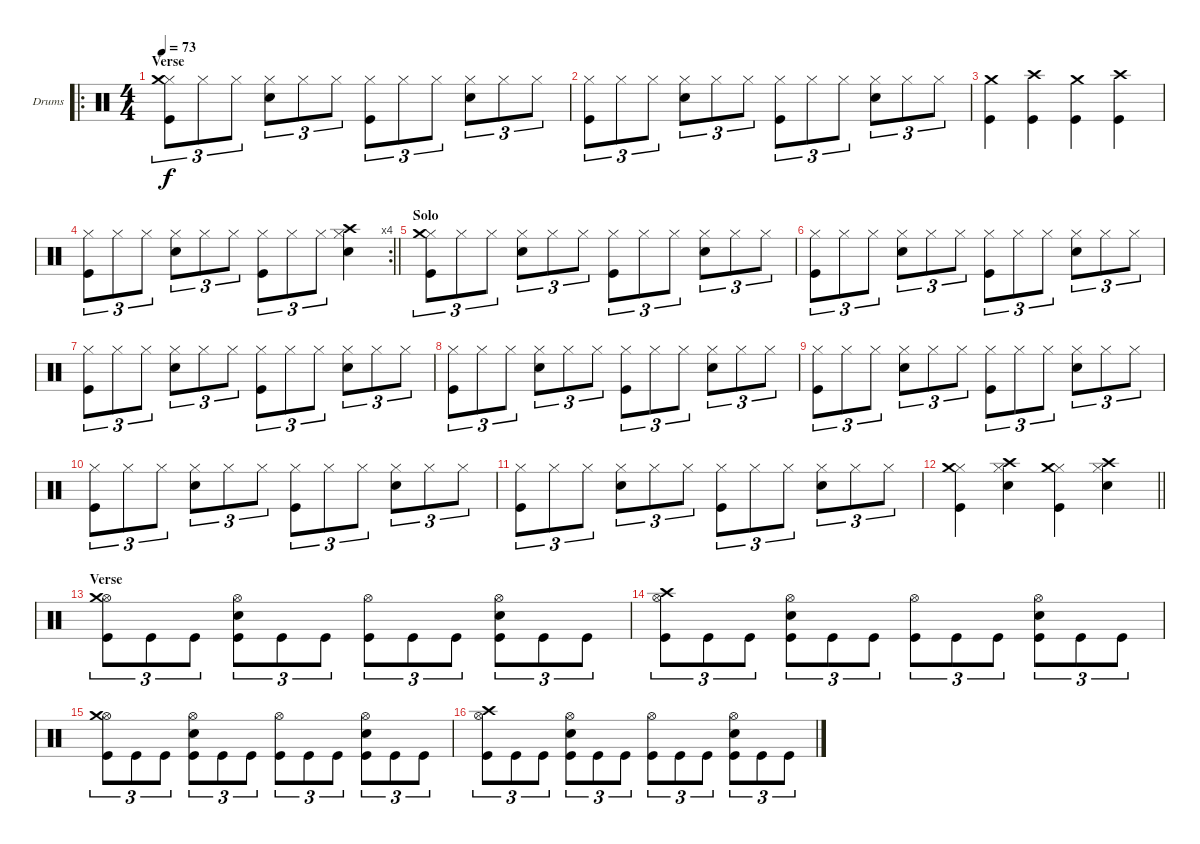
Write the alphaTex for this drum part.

\bracketExtendMode groupsimilarinstruments
\firstSystemTrackNameOrientation horizontal
\otherSystemsTrackNameOrientation horizontal
\track ("Drumkit" "Drums") {instrument percussion}
\staff {score}
\articulation defaults
\ro
\ts (4 4)
\section ("" "Verse")
\tempo 73
\clef neutral
\ks c
("Kick (hit)" "Hi-Hat (closed)" "Crash medium (hit)").8{tu (3 2) dy f} "Hi-Hat (closed)".8{tu (3 2)} "Hi-Hat (closed)".8{tu (3 2)} ("Snare (hit) 2" "Hi-Hat (closed)").8{tu (3 2)} "Hi-Hat (closed)".8{tu (3 2)} "Hi-Hat (closed)".8{tu (3 2)} ("Kick (hit)" "Hi-Hat (closed)").8{tu (3 2)} "Hi-Hat (closed)".8{tu (3 2)} "Hi-Hat (closed)".8{tu (3 2)} ("Snare (hit) 2" "Hi-Hat (closed)").8{tu (3 2)} "Hi-Hat (closed)".8{tu (3 2)} "Hi-Hat (closed)".8{tu (3 2)} |
("Kick (hit)" "Hi-Hat (closed)").8{tu (3 2)} "Hi-Hat (closed)".8{tu (3 2)} "Hi-Hat (closed)".8{tu (3 2)} ("Snare (hit) 2" "Hi-Hat (closed)").8{tu (3 2)} "Hi-Hat (closed)".8{tu (3 2)} "Hi-Hat (closed)".8{tu (3 2)} ("Kick (hit)" "Hi-Hat (closed)").8{tu (3 2)} "Hi-Hat (closed)".8{tu (3 2)} "Hi-Hat (closed)".8{tu (3 2)} ("Snare (hit) 2" "Hi-Hat (closed)").8{tu (3 2)} "Hi-Hat (closed)".8{tu (3 2)} "Hi-Hat (closed)".8{tu (3 2)} |
("Kick (hit)" "Crash medium (hit)").4 ("Kick (hit)" "Crash high (hit)").4 ("Kick (hit)" "Crash medium (hit)").4 ("Kick (hit)" "Crash high (hit)").4 |
\rc 4
\barLineRight lightlight
("Kick (hit)" "Hi-Hat (closed)").8{tu (3 2)} "Hi-Hat (closed)".8{tu (3 2)} "Hi-Hat (closed)".8{tu (3 2)} ("Snare (hit) 2" "Hi-Hat (closed)").8{tu (3 2)} "Hi-Hat (closed)".8{tu (3 2)} "Hi-Hat (closed)".8{tu (3 2)} ("Kick (hit)" "Hi-Hat (closed)").8{tu (3 2)} "Hi-Hat (closed)".8{tu (3 2)} "Hi-Hat (closed)".8{tu (3 2)} ("Snare (hit) 2" "Hi-Hat (closed)" "Crash high (hit)").4 |
\section ("" "Solo")
("Kick (hit)" "Hi-Hat (closed)" "Crash medium (hit)").8{tu (3 2)} "Hi-Hat (closed)".8{tu (3 2)} "Hi-Hat (closed)".8{tu (3 2)} ("Snare (hit) 2" "Hi-Hat (closed)").8{tu (3 2)} "Hi-Hat (closed)".8{tu (3 2)} "Hi-Hat (closed)".8{tu (3 2)} ("Kick (hit)" "Hi-Hat (closed)").8{tu (3 2)} "Hi-Hat (closed)".8{tu (3 2)} "Hi-Hat (closed)".8{tu (3 2)} ("Snare (hit) 2" "Hi-Hat (closed)").8{tu (3 2)} "Hi-Hat (closed)".8{tu (3 2)} "Hi-Hat (closed)".8{tu (3 2)} |
("Kick (hit)" "Hi-Hat (closed)").8{tu (3 2)} "Hi-Hat (closed)".8{tu (3 2)} "Hi-Hat (closed)".8{tu (3 2)} ("Snare (hit) 2" "Hi-Hat (closed)").8{tu (3 2)} "Hi-Hat (closed)".8{tu (3 2)} "Hi-Hat (closed)".8{tu (3 2)} ("Kick (hit)" "Hi-Hat (closed)").8{tu (3 2)} "Hi-Hat (closed)".8{tu (3 2)} "Hi-Hat (closed)".8{tu (3 2)} ("Snare (hit) 2" "Hi-Hat (closed)").8{tu (3 2)} "Hi-Hat (closed)".8{tu (3 2)} "Hi-Hat (closed)".8{tu (3 2)} |
("Kick (hit)" "Hi-Hat (closed)").8{tu (3 2)} "Hi-Hat (closed)".8{tu (3 2)} "Hi-Hat (closed)".8{tu (3 2)} ("Snare (hit) 2" "Hi-Hat (closed)").8{tu (3 2)} "Hi-Hat (closed)".8{tu (3 2)} "Hi-Hat (closed)".8{tu (3 2)} ("Kick (hit)" "Hi-Hat (closed)").8{tu (3 2)} "Hi-Hat (closed)".8{tu (3 2)} "Hi-Hat (closed)".8{tu (3 2)} ("Snare (hit) 2" "Hi-Hat (closed)").8{tu (3 2)} "Hi-Hat (closed)".8{tu (3 2)} "Hi-Hat (closed)".8{tu (3 2)} |
("Kick (hit)" "Hi-Hat (closed)").8{tu (3 2)} "Hi-Hat (closed)".8{tu (3 2)} "Hi-Hat (closed)".8{tu (3 2)} ("Snare (hit) 2" "Hi-Hat (closed)").8{tu (3 2)} "Hi-Hat (closed)".8{tu (3 2)} "Hi-Hat (closed)".8{tu (3 2)} ("Kick (hit)" "Hi-Hat (closed)").8{tu (3 2)} "Hi-Hat (closed)".8{tu (3 2)} "Hi-Hat (closed)".8{tu (3 2)} ("Snare (hit) 2" "Hi-Hat (closed)").8{tu (3 2)} "Hi-Hat (closed)".8{tu (3 2)} "Hi-Hat (closed)".8{tu (3 2)} |
("Kick (hit)" "Hi-Hat (closed)").8{tu (3 2)} "Hi-Hat (closed)".8{tu (3 2)} "Hi-Hat (closed)".8{tu (3 2)} ("Snare (hit) 2" "Hi-Hat (closed)").8{tu (3 2)} "Hi-Hat (closed)".8{tu (3 2)} "Hi-Hat (closed)".8{tu (3 2)} ("Kick (hit)" "Hi-Hat (closed)").8{tu (3 2)} "Hi-Hat (closed)".8{tu (3 2)} "Hi-Hat (closed)".8{tu (3 2)} ("Snare (hit) 2" "Hi-Hat (closed)").8{tu (3 2)} "Hi-Hat (closed)".8{tu (3 2)} "Hi-Hat (closed)".8{tu (3 2)} |
("Kick (hit)" "Hi-Hat (closed)").8{tu (3 2)} "Hi-Hat (closed)".8{tu (3 2)} "Hi-Hat (closed)".8{tu (3 2)} ("Snare (hit) 2" "Hi-Hat (closed)").8{tu (3 2)} "Hi-Hat (closed)".8{tu (3 2)} "Hi-Hat (closed)".8{tu (3 2)} ("Kick (hit)" "Hi-Hat (closed)").8{tu (3 2)} "Hi-Hat (closed)".8{tu (3 2)} "Hi-Hat (closed)".8{tu (3 2)} ("Snare (hit) 2" "Hi-Hat (closed)").8{tu (3 2)} "Hi-Hat (closed)".8{tu (3 2)} "Hi-Hat (closed)".8{tu (3 2)} |
("Kick (hit)" "Hi-Hat (closed)").8{tu (3 2)} "Hi-Hat (closed)".8{tu (3 2)} "Hi-Hat (closed)".8{tu (3 2)} ("Snare (hit) 2" "Hi-Hat (closed)").8{tu (3 2)} "Hi-Hat (closed)".8{tu (3 2)} "Hi-Hat (closed)".8{tu (3 2)} ("Kick (hit)" "Hi-Hat (closed)").8{tu (3 2)} "Hi-Hat (closed)".8{tu (3 2)} "Hi-Hat (closed)".8{tu (3 2)} ("Snare (hit) 2" "Hi-Hat (closed)").8{tu (3 2)} "Hi-Hat (closed)".8{tu (3 2)} "Hi-Hat (closed)".8{tu (3 2)} |
\barLineRight lightlight
("Kick (hit)" "Hi-Hat (closed)" "Crash medium (hit)").4 ("Snare (hit) 2" "Hi-Hat (closed)" "Crash high (hit)").4 ("Kick (hit)" "Hi-Hat (closed)" "Crash medium (hit)").4 ("Snare (hit) 2" "Hi-Hat (closed)" "Crash high (hit)").4 |
\section ("" "Verse")
("Kick (hit)" "Hi-Hat (open)" "Crash medium (hit)").8{tu (3 2)} "Kick (hit)".8{tu (3 2)} "Kick (hit)".8{tu (3 2)} ("Kick (hit)" "Snare (hit) 2" "Hi-Hat (open)").8{tu (3 2)} "Kick (hit)".8{tu (3 2)} "Kick (hit)".8{tu (3 2)} ("Kick (hit)" "Hi-Hat (open)").8{tu (3 2)} "Kick (hit)".8{tu (3 2)} "Kick (hit)".8{tu (3 2)} ("Kick (hit)" "Snare (hit) 2" "Hi-Hat (open)").8{tu (3 2)} "Kick (hit)".8{tu (3 2)} "Kick (hit)".8{tu (3 2)} |
("Kick (hit)" "Hi-Hat (open)" "Crash high (hit)").8{tu (3 2)} "Kick (hit)".8{tu (3 2)} "Kick (hit)".8{tu (3 2)} ("Kick (hit)" "Snare (hit) 2" "Hi-Hat (open)").8{tu (3 2)} "Kick (hit)".8{tu (3 2)} "Kick (hit)".8{tu (3 2)} ("Kick (hit)" "Hi-Hat (open)").8{tu (3 2)} "Kick (hit)".8{tu (3 2)} "Kick (hit)".8{tu (3 2)} ("Kick (hit)" "Snare (hit) 2" "Hi-Hat (open)").8{tu (3 2)} "Kick (hit)".8{tu (3 2)} "Kick (hit)".8{tu (3 2)} |
("Kick (hit)" "Hi-Hat (open)" "Crash medium (hit)").8{tu (3 2)} "Kick (hit)".8{tu (3 2)} "Kick (hit)".8{tu (3 2)} ("Kick (hit)" "Snare (hit) 2" "Hi-Hat (open)").8{tu (3 2)} "Kick (hit)".8{tu (3 2)} "Kick (hit)".8{tu (3 2)} ("Kick (hit)" "Hi-Hat (open)").8{tu (3 2)} "Kick (hit)".8{tu (3 2)} "Kick (hit)".8{tu (3 2)} ("Kick (hit)" "Snare (hit) 2" "Hi-Hat (open)").8{tu (3 2)} "Kick (hit)".8{tu (3 2)} "Kick (hit)".8{tu (3 2)} |
("Kick (hit)" "Hi-Hat (open)" "Crash high (hit)").8{tu (3 2)} "Kick (hit)".8{tu (3 2)} "Kick (hit)".8{tu (3 2)} ("Kick (hit)" "Snare (hit) 2" "Hi-Hat (open)").8{tu (3 2)} "Kick (hit)".8{tu (3 2)} "Kick (hit)".8{tu (3 2)} ("Kick (hit)" "Hi-Hat (open)").8{tu (3 2)} "Kick (hit)".8{tu (3 2)} "Kick (hit)".8{tu (3 2)} ("Kick (hit)" "Snare (hit) 2" "Hi-Hat (open)").8{tu (3 2)} "Kick (hit)".8{tu (3 2)} "Kick (hit)".8{tu (3 2)}
